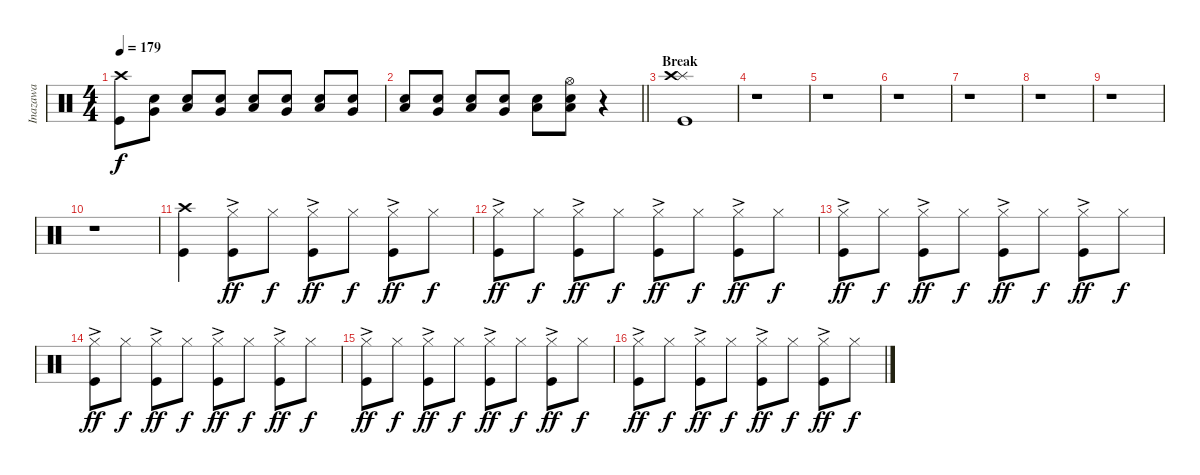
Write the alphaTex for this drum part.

\track ("Inazawa" "Inazawa") {instrument percussion}
\staff {score}
\articulation defaults
\ts (4 4)
\tempo 179
\clef neutral
\ks c
("Crash high (hit)"{t} "Kick (hit)"{t}).8{dy f} ("Snare (hit) 2" "Very Low Tom (hit)").8{volume 16} ("Snare (hit) 2" "Low Tom (hit)").8 ("Snare (hit) 2" "Very Low Tom (hit)").8 ("Snare (hit) 2" "Low Tom (hit)").8 ("Snare (hit) 2" "Very Low Tom (hit)").8 ("Snare (hit) 2" "Low Tom (hit)").8 ("Snare (hit) 2" "Very Low Tom (hit)").8 |
\barLineRight lightlight
("Snare (hit) 2" "Low Tom (hit)").8 ("Snare (hit) 2" "Very Low Tom (hit)").8 ("Snare (hit) 2" "Low Tom (hit)").8 ("Snare (hit) 2" "Very Low Tom (hit)").8 ("Snare (hit) 2" "Low Tom (hit)").8 ("Hi-Hat (open)" "Snare (hit) 2" "Low Tom (hit)").8 r.4 |
\section ("" "Break")
("Splash (hit)" "Crash high (hit)" "Kick (hit)").1 |
r.1 |
r.1 |
r.1 |
r.1 |
r.1 |
r.1 |
r.1 |
("Crash high (hit)" "Kick (hit)").4{volume 12} ("Hi-Hat (closed)"{ac} "Kick (hit)").8{dy ff} "Hi-Hat (closed)".8{dy f} ("Hi-Hat (closed)"{ac} "Kick (hit)").8{dy ff} "Hi-Hat (closed)".8{dy f} ("Hi-Hat (closed)"{ac} "Kick (hit)").8{dy ff} "Hi-Hat (closed)".8{dy f} |
("Hi-Hat (closed)"{ac} "Kick (hit)").8{dy ff} "Hi-Hat (closed)".8{dy f} ("Hi-Hat (closed)"{ac} "Kick (hit)").8{dy ff} "Hi-Hat (closed)".8{dy f} ("Hi-Hat (closed)"{ac} "Kick (hit)").8{dy ff} "Hi-Hat (closed)".8{dy f} ("Hi-Hat (closed)"{ac} "Kick (hit)").8{dy ff} "Hi-Hat (closed)".8{dy f} |
("Hi-Hat (closed)"{ac} "Kick (hit)").8{dy ff} "Hi-Hat (closed)".8{dy f} ("Hi-Hat (closed)"{ac} "Kick (hit)").8{dy ff} "Hi-Hat (closed)".8{dy f} ("Hi-Hat (closed)"{ac} "Kick (hit)").8{dy ff} "Hi-Hat (closed)".8{dy f} ("Hi-Hat (closed)"{ac} "Kick (hit)").8{dy ff} "Hi-Hat (closed)".8{dy f} |
("Hi-Hat (closed)"{ac} "Kick (hit)").8{dy ff} "Hi-Hat (closed)".8{dy f} ("Hi-Hat (closed)"{ac} "Kick (hit)").8{dy ff} "Hi-Hat (closed)".8{dy f} ("Hi-Hat (closed)"{ac} "Kick (hit)").8{dy ff} "Hi-Hat (closed)".8{dy f} ("Hi-Hat (closed)"{ac} "Kick (hit)").8{dy ff} "Hi-Hat (closed)".8{dy f} |
("Hi-Hat (closed)"{ac} "Kick (hit)").8{dy ff} "Hi-Hat (closed)".8{dy f} ("Hi-Hat (closed)"{ac} "Kick (hit)").8{dy ff} "Hi-Hat (closed)".8{dy f} ("Hi-Hat (closed)"{ac} "Kick (hit)").8{dy ff} "Hi-Hat (closed)".8{dy f} ("Hi-Hat (closed)"{ac} "Kick (hit)").8{dy ff} "Hi-Hat (closed)".8{dy f} |
("Hi-Hat (closed)"{ac} "Kick (hit)").8{dy ff} "Hi-Hat (closed)".8{dy f} ("Hi-Hat (closed)"{ac} "Kick (hit)").8{dy ff} "Hi-Hat (closed)".8{dy f} ("Hi-Hat (closed)"{ac} "Kick (hit)").8{dy ff} "Hi-Hat (closed)".8{dy f} ("Hi-Hat (closed)"{ac} "Kick (hit)").8{dy ff} "Hi-Hat (closed)".8{dy f}
